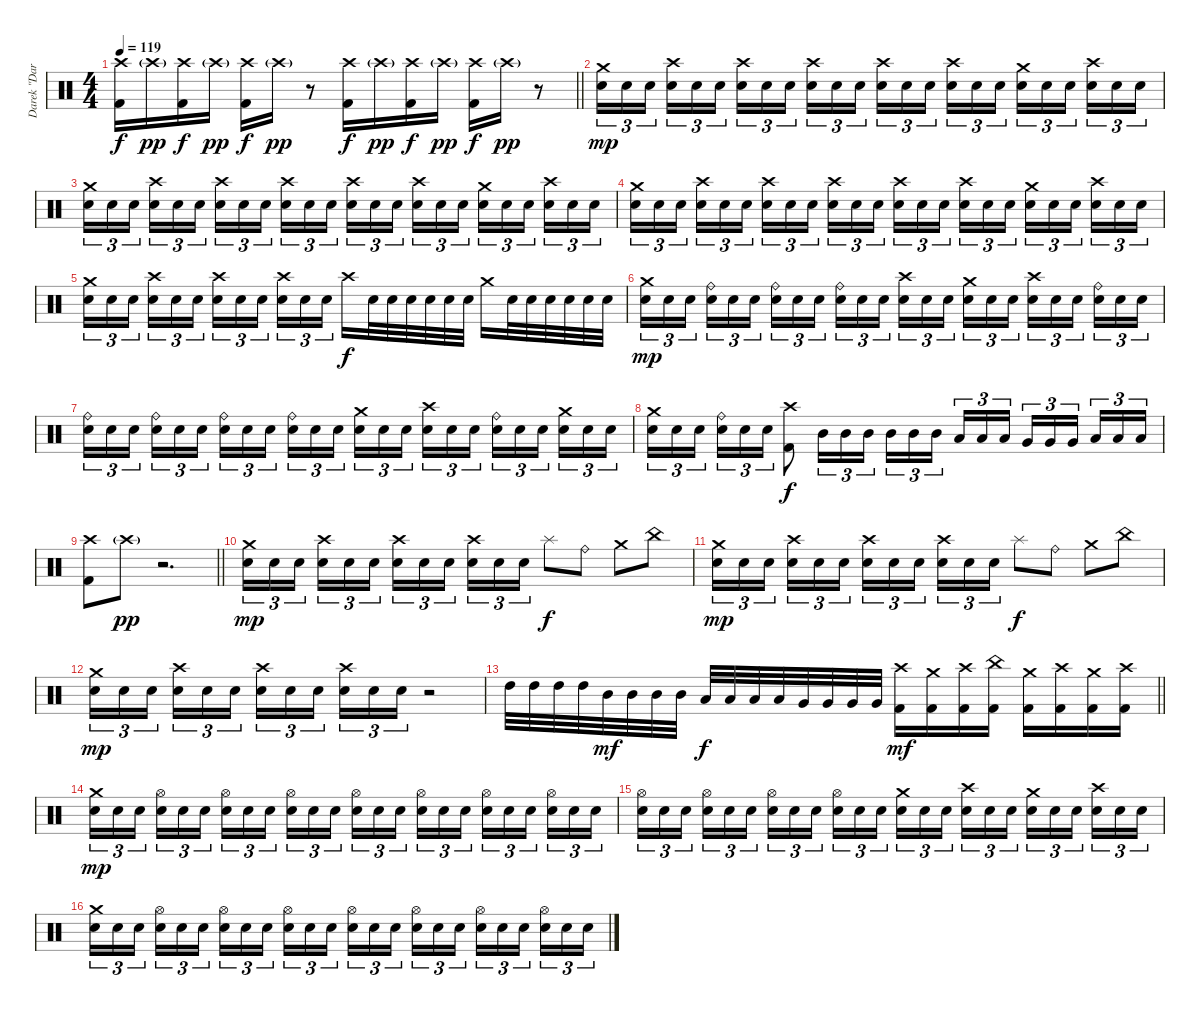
\track ("Darek \"Daray\" Brzozowski " "Darek \"Dar") {instrument percussion}
\staff {score}
\articulation defaults
\ts (4 4)
\tempo 119
\clef neutral
\barLineRight lightlight
\ks c
("Crash high (hit)" "Kick (hit) 2").16{dy f} "Crash high (hit)"{g}.16{dy pp} ("Crash high (hit)" "Kick (hit) 2").16{dy f} "Crash high (hit)"{g}.16{dy pp} ("Crash high (hit)" "Kick (hit) 2").16{dy f} "Crash high (hit)"{g}.16{dy pp} r.8 ("Crash high (hit)" "Kick (hit) 2").16{dy f} "Crash high (hit)"{g}.16{dy pp} ("Crash high (hit)" "Kick (hit) 2").16{dy f} "Crash high (hit)"{g}.16{dy pp} ("Crash high (hit)" "Kick (hit) 2").16{dy f} "Crash high (hit)"{g}.16{dy pp} r.8 |
("Crash medium (hit)" "Electric Snare (hit)").16{tu (3 2) dy mp} "Electric Snare (hit)".16{tu (3 2)} "Electric Snare (hit)".16{tu (3 2) beam splitsecondary} ("Crash high (hit)" "Electric Snare (hit)").16{tu (3 2)} "Electric Snare (hit)".16{tu (3 2)} "Electric Snare (hit)".16{tu (3 2)} ("Crash high (hit)" "Electric Snare (hit)").16{tu (3 2)} "Electric Snare (hit)".16{tu (3 2)} "Electric Snare (hit)".16{tu (3 2) beam splitsecondary} ("Crash high (hit)" "Electric Snare (hit)").16{tu (3 2)} "Electric Snare (hit)".16{tu (3 2)} "Electric Snare (hit)".16{tu (3 2)} ("Crash high (hit)" "Electric Snare (hit)").16{tu (3 2)} "Electric Snare (hit)".16{tu (3 2)} "Electric Snare (hit)".16{tu (3 2) beam splitsecondary} ("Crash high (hit)" "Electric Snare (hit)").16{tu (3 2)} "Electric Snare (hit)".16{tu (3 2)} "Electric Snare (hit)".16{tu (3 2)} ("Crash medium (hit)" "Electric Snare (hit)").16{tu (3 2)} "Electric Snare (hit)".16{tu (3 2)} "Electric Snare (hit)".16{tu (3 2) beam splitsecondary} ("Crash high (hit)" "Electric Snare (hit)").16{tu (3 2)} "Electric Snare (hit)".16{tu (3 2)} "Electric Snare (hit)".16{tu (3 2)} |
("Crash medium (hit)" "Electric Snare (hit)").16{tu (3 2)} "Electric Snare (hit)".16{tu (3 2)} "Electric Snare (hit)".16{tu (3 2) beam splitsecondary} ("Crash high (hit)" "Electric Snare (hit)").16{tu (3 2)} "Electric Snare (hit)".16{tu (3 2)} "Electric Snare (hit)".16{tu (3 2)} ("Crash high (hit)" "Electric Snare (hit)").16{tu (3 2)} "Electric Snare (hit)".16{tu (3 2)} "Electric Snare (hit)".16{tu (3 2) beam splitsecondary} ("Crash high (hit)" "Electric Snare (hit)").16{tu (3 2)} "Electric Snare (hit)".16{tu (3 2)} "Electric Snare (hit)".16{tu (3 2)} ("Crash high (hit)" "Electric Snare (hit)").16{tu (3 2)} "Electric Snare (hit)".16{tu (3 2)} "Electric Snare (hit)".16{tu (3 2) beam splitsecondary} ("Crash high (hit)" "Electric Snare (hit)").16{tu (3 2)} "Electric Snare (hit)".16{tu (3 2)} "Electric Snare (hit)".16{tu (3 2)} ("Crash medium (hit)" "Electric Snare (hit)").16{tu (3 2)} "Electric Snare (hit)".16{tu (3 2)} "Electric Snare (hit)".16{tu (3 2) beam splitsecondary} ("Crash high (hit)" "Electric Snare (hit)").16{tu (3 2)} "Electric Snare (hit)".16{tu (3 2)} "Electric Snare (hit)".16{tu (3 2)} |
("Crash medium (hit)" "Electric Snare (hit)").16{tu (3 2)} "Electric Snare (hit)".16{tu (3 2)} "Electric Snare (hit)".16{tu (3 2) beam splitsecondary} ("Crash high (hit)" "Electric Snare (hit)").16{tu (3 2)} "Electric Snare (hit)".16{tu (3 2)} "Electric Snare (hit)".16{tu (3 2)} ("Crash high (hit)" "Electric Snare (hit)").16{tu (3 2)} "Electric Snare (hit)".16{tu (3 2)} "Electric Snare (hit)".16{tu (3 2) beam splitsecondary} ("Crash high (hit)" "Electric Snare (hit)").16{tu (3 2)} "Electric Snare (hit)".16{tu (3 2)} "Electric Snare (hit)".16{tu (3 2)} ("Crash high (hit)" "Electric Snare (hit)").16{tu (3 2)} "Electric Snare (hit)".16{tu (3 2)} "Electric Snare (hit)".16{tu (3 2) beam splitsecondary} ("Crash high (hit)" "Electric Snare (hit)").16{tu (3 2)} "Electric Snare (hit)".16{tu (3 2)} "Electric Snare (hit)".16{tu (3 2)} ("Crash medium (hit)" "Electric Snare (hit)").16{tu (3 2)} "Electric Snare (hit)".16{tu (3 2)} "Electric Snare (hit)".16{tu (3 2) beam splitsecondary} ("Crash high (hit)" "Electric Snare (hit)").16{tu (3 2)} "Electric Snare (hit)".16{tu (3 2)} "Electric Snare (hit)".16{tu (3 2)} |
("Crash medium (hit)" "Electric Snare (hit)").16{tu (3 2)} "Electric Snare (hit)".16{tu (3 2)} "Electric Snare (hit)".16{tu (3 2) beam splitsecondary} ("Crash high (hit)" "Electric Snare (hit)").16{tu (3 2)} "Electric Snare (hit)".16{tu (3 2)} "Electric Snare (hit)".16{tu (3 2)} ("Crash high (hit)" "Electric Snare (hit)").16{tu (3 2)} "Electric Snare (hit)".16{tu (3 2)} "Electric Snare (hit)".16{tu (3 2) beam splitsecondary} ("Crash high (hit)" "Electric Snare (hit)").16{tu (3 2)} "Electric Snare (hit)".16{tu (3 2)} "Electric Snare (hit)".16{tu (3 2)} "Crash high (hit)".16{dy f} "Electric Snare (hit)".32 "Electric Snare (hit)".32 "Electric Snare (hit)".32 "Electric Snare (hit)".32 "Electric Snare (hit)".32 "Electric Snare (hit)".32 "Crash medium (hit)".16 "Electric Snare (hit)".32 "Electric Snare (hit)".32 "Electric Snare (hit)".32 "Electric Snare (hit)".32 "Electric Snare (hit)".32 "Electric Snare (hit)".32 |
("Crash medium (hit)" "Electric Snare (hit)").16{tu (3 2) dy mp} "Electric Snare (hit)".16{tu (3 2)} "Electric Snare (hit)".16{tu (3 2) beam splitsecondary} ("Ride (bell)" "Electric Snare (hit)").16{tu (3 2)} "Electric Snare (hit)".16{tu (3 2)} "Electric Snare (hit)".16{tu (3 2)} ("Ride (bell)" "Electric Snare (hit)").16{tu (3 2)} "Electric Snare (hit)".16{tu (3 2)} "Electric Snare (hit)".16{tu (3 2) beam splitsecondary} ("Ride (bell)" "Electric Snare (hit)").16{tu (3 2)} "Electric Snare (hit)".16{tu (3 2)} "Electric Snare (hit)".16{tu (3 2)} ("Crash high (hit)" "Electric Snare (hit)").16{tu (3 2)} "Electric Snare (hit)".16{tu (3 2)} "Electric Snare (hit)".16{tu (3 2) beam splitsecondary} ("Crash medium (hit)" "Electric Snare (hit)").16{tu (3 2)} "Electric Snare (hit)".16{tu (3 2)} "Electric Snare (hit)".16{tu (3 2)} ("Crash high (hit)" "Electric Snare (hit)").16{tu (3 2)} "Electric Snare (hit)".16{tu (3 2)} "Electric Snare (hit)".16{tu (3 2) beam splitsecondary} ("Ride (bell)" "Electric Snare (hit)").16{tu (3 2)} "Electric Snare (hit)".16{tu (3 2)} "Electric Snare (hit)".16{tu (3 2)} |
("Ride (bell)" "Electric Snare (hit)").16{tu (3 2)} "Electric Snare (hit)".16{tu (3 2)} "Electric Snare (hit)".16{tu (3 2) beam splitsecondary} ("Ride (bell)" "Electric Snare (hit)").16{tu (3 2)} "Electric Snare (hit)".16{tu (3 2)} "Electric Snare (hit)".16{tu (3 2)} ("Ride (bell)" "Electric Snare (hit)").16{tu (3 2)} "Electric Snare (hit)".16{tu (3 2)} "Electric Snare (hit)".16{tu (3 2) beam splitsecondary} ("Ride (bell)" "Electric Snare (hit)").16{tu (3 2)} "Electric Snare (hit)".16{tu (3 2)} "Electric Snare (hit)".16{tu (3 2)} ("Crash medium (hit)" "Electric Snare (hit)").16{tu (3 2)} "Electric Snare (hit)".16{tu (3 2)} "Electric Snare (hit)".16{tu (3 2) beam splitsecondary} ("Crash high (hit)" "Electric Snare (hit)").16{tu (3 2)} "Electric Snare (hit)".16{tu (3 2)} "Electric Snare (hit)".16{tu (3 2)} ("Ride (bell)" "Electric Snare (hit)").16{tu (3 2)} "Electric Snare (hit)".16{tu (3 2)} "Electric Snare (hit)".16{tu (3 2) beam splitsecondary} ("Crash medium (hit)" "Electric Snare (hit)").16{tu (3 2)} "Electric Snare (hit)".16{tu (3 2)} "Electric Snare (hit)".16{tu (3 2)} |
("Crash medium (hit)" "Electric Snare (hit)").16{tu (3 2)} "Electric Snare (hit)".16{tu (3 2)} "Electric Snare (hit)".16{tu (3 2) beam splitsecondary} ("Ride (bell)" "Electric Snare (hit)").16{tu (3 2)} "Electric Snare (hit)".16{tu (3 2)} "Electric Snare (hit)".16{tu (3 2)} ("Crash high (hit)" "Kick (hit) 2").8{dy f} "Mid Tom (hit)".16{tu (3 2)} "Mid Tom (hit)".16{tu (3 2)} "Mid Tom (hit)".16{tu (3 2)} "Mid Tom (hit)".16{tu (3 2)} "Mid Tom (hit)".16{tu (3 2)} "Mid Tom (hit)".16{tu (3 2) beam splitsecondary} "Low Tom (hit)".16{tu (3 2)} "Low Tom (hit)".16{tu (3 2)} "Low Tom (hit)".16{tu (3 2)} "Very Low Tom (hit)".16{tu (3 2)} "Very Low Tom (hit)".16{tu (3 2)} "Very Low Tom (hit)".16{tu (3 2) beam splitsecondary} "Low Floor Tom (hit)".16{tu (3 2)} "Low Floor Tom (hit)".16{tu (3 2)} "Low Floor Tom (hit)".16{tu (3 2)} |
\barLineRight lightlight
("Crash high (hit)" "Kick (hit) 2").8 "Crash high (hit)"{g}.8{dy pp} r.2{d} |
("Crash medium (hit)" "Electric Snare (hit)").16{tu (3 2) dy mp} "Electric Snare (hit)".16{tu (3 2)} "Electric Snare (hit)".16{tu (3 2) beam splitsecondary} ("Crash high (hit)" "Electric Snare (hit)").16{tu (3 2)} "Electric Snare (hit)".16{tu (3 2)} "Electric Snare (hit)".16{tu (3 2)} ("Crash high (hit)" "Electric Snare (hit)").16{tu (3 2)} "Electric Snare (hit)".16{tu (3 2)} "Electric Snare (hit)".16{tu (3 2) beam splitsecondary} ("Crash high (hit)" "Electric Snare (hit)").16{tu (3 2)} "Electric Snare (hit)".16{tu (3 2)} "Electric Snare (hit)".16{tu (3 2)} "Splash (hit)".8{dy f} "Ride (bell)".8 "Crash medium (hit)".8 "China (hit)".8 |
("Crash medium (hit)" "Electric Snare (hit)").16{tu (3 2) dy mp} "Electric Snare (hit)".16{tu (3 2)} "Electric Snare (hit)".16{tu (3 2) beam splitsecondary} ("Crash high (hit)" "Electric Snare (hit)").16{tu (3 2)} "Electric Snare (hit)".16{tu (3 2)} "Electric Snare (hit)".16{tu (3 2)} ("Crash high (hit)" "Electric Snare (hit)").16{tu (3 2)} "Electric Snare (hit)".16{tu (3 2)} "Electric Snare (hit)".16{tu (3 2) beam splitsecondary} ("Crash high (hit)" "Electric Snare (hit)").16{tu (3 2)} "Electric Snare (hit)".16{tu (3 2)} "Electric Snare (hit)".16{tu (3 2)} "Splash (hit)".8{dy f} "Ride (bell)".8 "Crash medium (hit)".8 "China (hit)".8 |
("Crash medium (hit)" "Electric Snare (hit)").16{tu (3 2) dy mp} "Electric Snare (hit)".16{tu (3 2)} "Electric Snare (hit)".16{tu (3 2) beam splitsecondary} ("Crash high (hit)" "Electric Snare (hit)").16{tu (3 2)} "Electric Snare (hit)".16{tu (3 2)} "Electric Snare (hit)".16{tu (3 2)} ("Crash high (hit)" "Electric Snare (hit)").16{tu (3 2)} "Electric Snare (hit)".16{tu (3 2)} "Electric Snare (hit)".16{tu (3 2) beam splitsecondary} ("Crash high (hit)" "Electric Snare (hit)").16{tu (3 2)} "Electric Snare (hit)".16{tu (3 2)} "Electric Snare (hit)".16{tu (3 2)} r.2 |
\barLineRight lightlight "High Tom (hit)".32 "High Tom (hit)".32 "High Tom (hit)".32 "High Tom (hit)".32 "Mid Tom (hit)".32{dy mf} "Mid Tom (hit)".32 "Mid Tom (hit)".32 "Mid Tom (hit)".32 "Low Tom (hit)".32{dy f} "Low Tom (hit)".32 "Low Tom (hit)".32 "Low Tom (hit)".32 "Very Low Tom (hit)".32 "Very Low Tom (hit)".32 "Very Low Tom (hit)".32 "Very Low Tom (hit)".32
("Crash high (hit)" "Kick (hit) 2").16{dy mf} ("Crash medium (hit)" "Kick (hit) 2").16 ("Crash high (hit)" "Kick (hit) 2").16 ("China (hit)" "Kick (hit) 2").16 ("Crash medium (hit)" "Kick (hit) 2").16 ("Crash high (hit)" "Kick (hit) 2").16 ("Crash medium (hit)" "Kick (hit) 2").16 ("Crash high (hit)" "Kick (hit) 2").16 |
("Crash medium (hit)" "Electric Snare (hit)").16{tu (3 2) dy mp} "Electric Snare (hit)".16{tu (3 2)} "Electric Snare (hit)".16{tu (3 2) beam splitsecondary} ("Hi-Hat (open)" "Electric Snare (hit)").16{tu (3 2)} "Electric Snare (hit)".16{tu (3 2)} "Electric Snare (hit)".16{tu (3 2)} ("Hi-Hat (open)" "Electric Snare (hit)").16{tu (3 2)} "Electric Snare (hit)".16{tu (3 2)} "Electric Snare (hit)".16{tu (3 2) beam splitsecondary} ("Hi-Hat (open)" "Electric Snare (hit)").16{tu (3 2)} "Electric Snare (hit)".16{tu (3 2)} "Electric Snare (hit)".16{tu (3 2)} ("Hi-Hat (open)" "Electric Snare (hit)").16{tu (3 2)} "Electric Snare (hit)".16{tu (3 2)} "Electric Snare (hit)".16{tu (3 2) beam splitsecondary} ("Hi-Hat (open)" "Electric Snare (hit)").16{tu (3 2)} "Electric Snare (hit)".16{tu (3 2)} "Electric Snare (hit)".16{tu (3 2)} ("Hi-Hat (open)" "Electric Snare (hit)").16{tu (3 2)} "Electric Snare (hit)".16{tu (3 2)} "Electric Snare (hit)".16{tu (3 2) beam splitsecondary} ("Hi-Hat (open)" "Electric Snare (hit)").16{tu (3 2)} "Electric Snare (hit)".16{tu (3 2)} "Electric Snare (hit)".16{tu (3 2)} |
("Hi-Hat (open)" "Electric Snare (hit)").16{tu (3 2)} "Electric Snare (hit)".16{tu (3 2)} "Electric Snare (hit)".16{tu (3 2) beam splitsecondary} ("Hi-Hat (open)" "Electric Snare (hit)").16{tu (3 2)} "Electric Snare (hit)".16{tu (3 2)} "Electric Snare (hit)".16{tu (3 2)} ("Hi-Hat (open)" "Electric Snare (hit)").16{tu (3 2)} "Electric Snare (hit)".16{tu (3 2)} "Electric Snare (hit)".16{tu (3 2) beam splitsecondary} ("Hi-Hat (open)" "Electric Snare (hit)").16{tu (3 2)} "Electric Snare (hit)".16{tu (3 2)} "Electric Snare (hit)".16{tu (3 2)} ("Crash medium (hit)" "Electric Snare (hit)").16{tu (3 2)} "Electric Snare (hit)".16{tu (3 2)} "Electric Snare (hit)".16{tu (3 2) beam splitsecondary} ("Crash high (hit)" "Electric Snare (hit)").16{tu (3 2)} "Electric Snare (hit)".16{tu (3 2)} "Electric Snare (hit)".16{tu (3 2)} ("Crash medium (hit)" "Electric Snare (hit)").16{tu (3 2)} "Electric Snare (hit)".16{tu (3 2)} "Electric Snare (hit)".16{tu (3 2) beam splitsecondary} ("Crash high (hit)" "Electric Snare (hit)").16{tu (3 2)} "Electric Snare (hit)".16{tu (3 2)} "Electric Snare (hit)".16{tu (3 2)} |
("Crash medium (hit)" "Electric Snare (hit)").16{tu (3 2)} "Electric Snare (hit)".16{tu (3 2)} "Electric Snare (hit)".16{tu (3 2) beam splitsecondary} ("Hi-Hat (open)" "Electric Snare (hit)").16{tu (3 2)} "Electric Snare (hit)".16{tu (3 2)} "Electric Snare (hit)".16{tu (3 2)} ("Hi-Hat (open)" "Electric Snare (hit)").16{tu (3 2)} "Electric Snare (hit)".16{tu (3 2)} "Electric Snare (hit)".16{tu (3 2) beam splitsecondary} ("Hi-Hat (open)" "Electric Snare (hit)").16{tu (3 2)} "Electric Snare (hit)".16{tu (3 2)} "Electric Snare (hit)".16{tu (3 2)} ("Hi-Hat (open)" "Electric Snare (hit)").16{tu (3 2)} "Electric Snare (hit)".16{tu (3 2)} "Electric Snare (hit)".16{tu (3 2) beam splitsecondary} ("Hi-Hat (open)" "Electric Snare (hit)").16{tu (3 2)} "Electric Snare (hit)".16{tu (3 2)} "Electric Snare (hit)".16{tu (3 2)} ("Hi-Hat (open)" "Electric Snare (hit)").16{tu (3 2)} "Electric Snare (hit)".16{tu (3 2)} "Electric Snare (hit)".16{tu (3 2) beam splitsecondary} ("Hi-Hat (open)" "Electric Snare (hit)").16{tu (3 2)} "Electric Snare (hit)".16{tu (3 2)} "Electric Snare (hit)".16{tu (3 2)}
